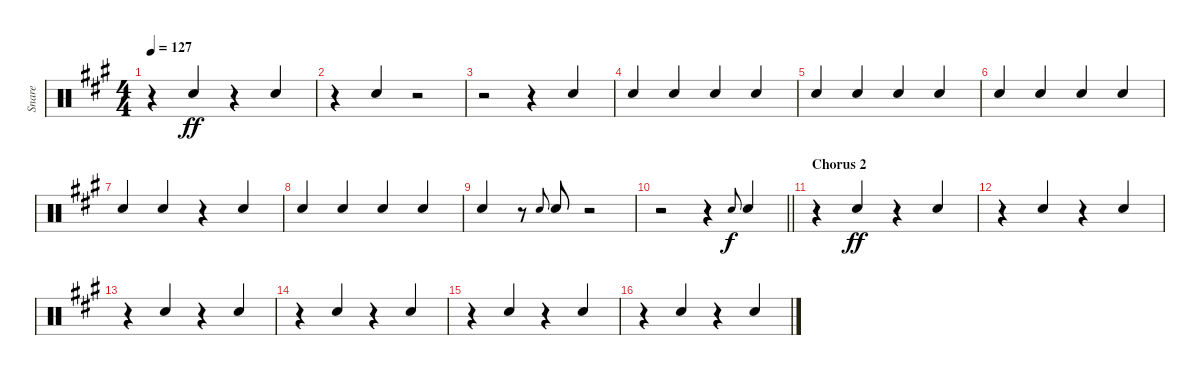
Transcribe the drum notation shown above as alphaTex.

\track ("Snare" "Snare") {instrument percussion}
\staff {score}
\articulation defaults
\ts (4 4)
\tempo 127
\clef neutral
\ks a
r.4{dy ff} "Electric Snare (hit)".4{beam Up} r.4 "Electric Snare (hit)".4{beam Up} |
r.4 "Electric Snare (hit)".4{beam Up} r.2 |
r.2 r.4 "Electric Snare (hit)".4{beam Up} |
"Electric Snare (hit)".4{beam Up} "Electric Snare (hit)".4{beam Up} "Electric Snare (hit)".4{beam Up} "Electric Snare (hit)".4{beam Up} |
"Electric Snare (hit)".4{beam Up} "Electric Snare (hit)".4{beam Up} "Electric Snare (hit)".4{beam Up} "Electric Snare (hit)".4{beam Up} |
"Electric Snare (hit)".4{beam Up} "Electric Snare (hit)".4{beam Up} "Electric Snare (hit)".4{beam Up} "Electric Snare (hit)".4{beam Up} |
"Electric Snare (hit)".4{beam Up beam merge} "Electric Snare (hit)".4{beam Up} r.4 "Electric Snare (hit)".4{beam Up} |
"Electric Snare (hit)".4{beam Up} "Electric Snare (hit)".4{beam Up} "Electric Snare (hit)".4{beam Up} "Electric Snare (hit)".4{beam Up} |
"Electric Snare (hit)".4{beam Up} r.8 "Electric Snare (hit)".8{gr onbeat} "Electric Snare (hit)".8{beam Up} r.2 |
\barLineRight lightlight
r.2 r.4 "Electric Snare (hit)".8{gr onbeat dy f} "Electric Snare (hit)".4{beam Up} |
\section ("" "Chorus 2")
r.4{beam merge} "Electric Snare (hit)".4{dy ff beam Up} r.4{beam merge} "Electric Snare (hit)".4{beam Up} |
r.4{beam merge} "Electric Snare (hit)".4{beam Up} r.4{beam merge} "Electric Snare (hit)".4{beam Up} |
r.4{beam merge} "Electric Snare (hit)".4{beam Up} r.4{beam merge} "Electric Snare (hit)".4{beam Up} |
r.4{beam merge} "Electric Snare (hit)".4{beam Up} r.4{beam merge} "Electric Snare (hit)".4{beam Up} |
r.4{beam merge} "Electric Snare (hit)".4{beam Up} r.4{beam merge} "Electric Snare (hit)".4{beam Up} |
r.4{beam merge} "Electric Snare (hit)".4{beam Up} r.4{beam merge} "Electric Snare (hit)".4{beam Up}
